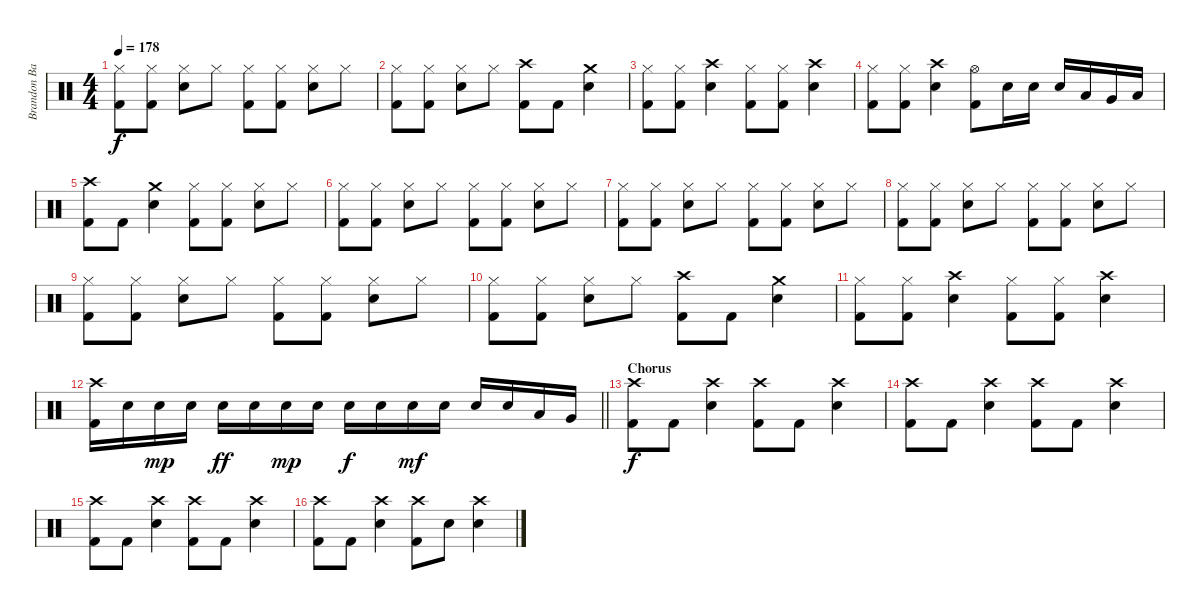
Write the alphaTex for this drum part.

\track ("Brandon Barnes - Drums" "Brandon Ba") {instrument percussion}
\staff {score}
\articulation defaults
\ts (4 4)
\tempo 178
\clef neutral
\ks c
("Kick (hit) 2" "Hi-Hat (closed)").8{dy f} ("Kick (hit) 2" "Hi-Hat (closed)").8 ("Snare (hit) 2" "Hi-Hat (closed)").8 "Hi-Hat (closed)".8 ("Kick (hit) 2" "Hi-Hat (closed)").8 ("Kick (hit) 2" "Hi-Hat (closed)").8 ("Snare (hit) 2" "Hi-Hat (closed)").8 "Hi-Hat (closed)".8 |
("Kick (hit) 2" "Hi-Hat (closed)").8 ("Kick (hit) 2" "Hi-Hat (closed)").8 ("Snare (hit) 2" "Hi-Hat (closed)").8 "Hi-Hat (closed)".8 ("Kick (hit) 2" "Crash high (hit)").8 "Kick (hit) 2".8 ("Snare (hit) 2" "Crash medium (hit)").4 |
("Kick (hit) 2" "Hi-Hat (closed)").8 ("Kick (hit) 2" "Hi-Hat (closed)").8 ("Snare (hit) 2" "Crash high (hit)").4 ("Kick (hit) 2" "Hi-Hat (closed)").8 ("Kick (hit) 2" "Hi-Hat (closed)").8 ("Snare (hit) 2" "Crash high (hit)").4 |
("Kick (hit) 2" "Hi-Hat (closed)").8 ("Kick (hit) 2" "Hi-Hat (closed)").8 ("Snare (hit) 2" "Crash high (hit)").4 ("Hi-Hat (open)" "Kick (hit) 2").8 "Snare (hit) 2".16 "Snare (hit) 2".16 "Snare (hit) 2".16 "Low Tom (hit)".16 "Very Low Tom (hit)".16 "Low Floor Tom (hit)".16 |
("Kick (hit) 2" "Crash high (hit)").8 "Kick (hit) 2".8 ("Snare (hit) 2" "Crash medium (hit)").4 ("Kick (hit) 2" "Hi-Hat (closed)").8 ("Kick (hit) 2" "Hi-Hat (closed)").8 ("Snare (hit) 2" "Hi-Hat (closed)").8 "Hi-Hat (closed)".8 |
("Kick (hit) 2" "Hi-Hat (closed)").8 ("Kick (hit) 2" "Hi-Hat (closed)").8 ("Snare (hit) 2" "Hi-Hat (closed)").8 "Hi-Hat (closed)".8 ("Kick (hit) 2" "Hi-Hat (closed)").8 ("Kick (hit) 2" "Hi-Hat (closed)").8 ("Snare (hit) 2" "Hi-Hat (closed)").8 "Hi-Hat (closed)".8 |
("Kick (hit) 2" "Hi-Hat (closed)").8 ("Kick (hit) 2" "Hi-Hat (closed)").8 ("Snare (hit) 2" "Hi-Hat (closed)").8 "Hi-Hat (closed)".8 ("Kick (hit) 2" "Hi-Hat (closed)").8 ("Kick (hit) 2" "Hi-Hat (closed)").8 ("Snare (hit) 2" "Hi-Hat (closed)").8 "Hi-Hat (closed)".8 |
("Kick (hit) 2" "Hi-Hat (closed)").8 ("Kick (hit) 2" "Hi-Hat (closed)").8 ("Snare (hit) 2" "Hi-Hat (closed)").8 "Hi-Hat (closed)".8 ("Kick (hit) 2" "Hi-Hat (closed)").8 ("Kick (hit) 2" "Hi-Hat (closed)").8 ("Snare (hit) 2" "Hi-Hat (closed)").8 "Hi-Hat (closed)".8 |
("Kick (hit) 2" "Hi-Hat (closed)").8 ("Kick (hit) 2" "Hi-Hat (closed)").8 ("Snare (hit) 2" "Hi-Hat (closed)").8 "Hi-Hat (closed)".8 ("Kick (hit) 2" "Hi-Hat (closed)").8 ("Kick (hit) 2" "Hi-Hat (closed)").8 ("Snare (hit) 2" "Hi-Hat (closed)").8 "Hi-Hat (closed)".8 |
("Kick (hit) 2" "Hi-Hat (closed)").8 ("Kick (hit) 2" "Hi-Hat (closed)").8 ("Snare (hit) 2" "Hi-Hat (closed)").8 "Hi-Hat (closed)".8 ("Kick (hit) 2" "Crash high (hit)").8 "Kick (hit) 2".8 ("Snare (hit) 2" "Crash medium (hit)").4 |
("Kick (hit) 2" "Hi-Hat (closed)").8 ("Kick (hit) 2" "Hi-Hat (closed)").8 ("Snare (hit) 2" "Crash high (hit)").4 ("Kick (hit) 2" "Hi-Hat (closed)").8 ("Kick (hit) 2" "Hi-Hat (closed)").8 ("Snare (hit) 2" "Crash high (hit)").4 |
\barLineRight lightlight
("Crash high (hit)" "Kick (hit) 2").16 "Snare (hit) 2".16 "Snare (hit) 2".16{dy mp} "Snare (hit) 2".16 "Snare (hit) 2".16{dy ff} "Snare (hit) 2".16 "Snare (hit) 2".16{dy mp} "Snare (hit) 2".16 "Snare (hit) 2".16{dy f} "Snare (hit) 2".16 "Snare (hit) 2".16{dy mf} "Snare (hit) 2".16 "Snare (hit) 2".16 "Snare (hit) 2".16 "Low Tom (hit)".16 "Very Low Tom (hit)".16 |
\section ("" "Chorus")
("Crash high (hit)" "Kick (hit) 2").8{dy f} "Kick (hit) 2".8 ("Snare (hit) 2" "Crash high (hit)").4 ("Crash high (hit)" "Kick (hit) 2").8 "Kick (hit) 2".8 ("Snare (hit) 2" "Crash high (hit)").4 |
("Crash high (hit)" "Kick (hit) 2").8 "Kick (hit) 2".8 ("Snare (hit) 2" "Crash high (hit)").4 ("Crash high (hit)" "Kick (hit) 2").8 "Kick (hit) 2".8 ("Snare (hit) 2" "Crash high (hit)").4 |
("Crash high (hit)" "Kick (hit) 2").8 "Kick (hit) 2".8 ("Snare (hit) 2" "Crash high (hit)").4 ("Crash high (hit)" "Kick (hit) 2").8 "Kick (hit) 2".8 ("Snare (hit) 2" "Crash high (hit)").4 |
("Crash high (hit)" "Kick (hit) 2").8 "Kick (hit) 2".8 ("Snare (hit) 2" "Crash high (hit)").4 ("Crash high (hit)" "Kick (hit) 2").8 "Snare (hit) 2".8 ("Snare (hit) 2" "Crash high (hit)").4
